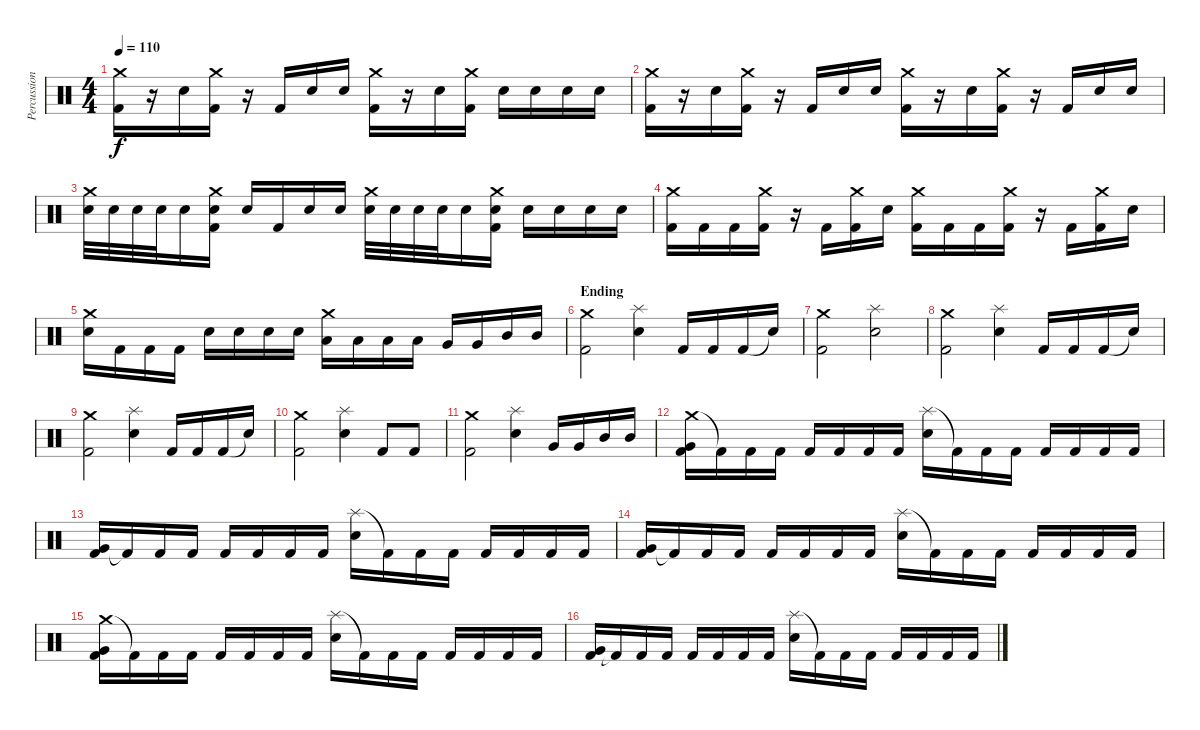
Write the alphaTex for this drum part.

\track ("Percussion" "Percussion") {instrument percussion}
\staff {score}
\articulation defaults
\ts (4 4)
\tempo 110
\clef neutral
\ks c
("Crash medium (hit)" "Kick (hit) 2").16{dy f} r.16 "Snare (hit) 2".16 ("Crash medium (hit)" "Kick (hit) 2").16 r.16 "Kick (hit) 2".16 "Snare (hit) 2".16 "Electric Snare (hit)".16 ("Crash medium (hit)" "Kick (hit) 2").16 r.16 "Snare (hit) 2".16 ("Crash medium (hit)" "Kick (hit) 2").16 "Snare (hit) 2".16 "Snare (hit) 2".16 "Snare (hit) 2".16 "Electric Snare (hit)".16 |
("Crash medium (hit)" "Kick (hit) 2").16 r.16 "Snare (hit) 2".16 ("Crash medium (hit)" "Kick (hit) 2").16 r.16 "Kick (hit) 2".16 "Snare (hit) 2".16 "Electric Snare (hit)".16 ("Crash medium (hit)" "Kick (hit) 2").16 r.16 "Snare (hit) 2".16 ("Crash medium (hit)" "Kick (hit) 2").16 r.16 "Kick (hit) 2".16 "Snare (hit) 2".16 "Electric Snare (hit)".16 |
("Crash medium (hit)" "Electric Snare (hit)").32 "Electric Snare (hit)".32 "Snare (hit) 2".32 "Electric Snare (hit)".32 "Snare (hit) 2".16 ("Crash medium (hit)" "Kick (hit) 2" "Snare (hit) 2").16 "Snare (hit) 2".16 "Kick (hit) 2".16 "Snare (hit) 2".16 "Electric Snare (hit)".16 ("Crash medium (hit)" "Electric Snare (hit)").32 "Electric Snare (hit)".32 "Snare (hit) 2".32 "Electric Snare (hit)".32 "Snare (hit) 2".16 ("Crash medium (hit)" "Kick (hit) 2" "Snare (hit) 2").16 "Snare (hit) 2".16 "Electric Snare (hit)".16 "Snare (hit) 2".16 "Electric Snare (hit)".16 |
("Crash medium (hit)" "Kick (hit) 2").16 "Kick (hit) 2".16 "Kick (hit) 2".16 ("Crash medium (hit)" "Kick (hit) 2").16 r.16 "Kick (hit) 2".16 ("Crash medium (hit)" "Kick (hit) 2").16 "Electric Snare (hit)".16 ("Crash medium (hit)" "Kick (hit) 2").16 "Kick (hit) 2".16 "Kick (hit) 2".16 ("Crash medium (hit)" "Kick (hit) 2").16 r.16 "Kick (hit) 2".16 ("Crash medium (hit)" "Kick (hit) 2").16 "Electric Snare (hit)".16 |
("Crash medium (hit)" "Snare (hit) 2").16 "Kick (hit) 2".16 "Kick (hit) 2".16 "Kick (hit) 2".16 "Electric Snare (hit)".16 "Electric Snare (hit)".16 "Electric Snare (hit)".16 "Electric Snare (hit)".16 ("Crash medium (hit)" "Low Tom (hit)").16 "Low Tom (hit)".16 "Low Tom (hit)".16 "Low Tom (hit)".16 "Very Low Tom (hit)".16 "Very Low Tom (hit)".16 "Mid Tom (hit)".16 "Mid Tom (hit)".16 |
\section ("" "Ending")
("Crash medium (hit)" "Kick (hit) 2").2 ("Splash (hit)" "Electric Snare (hit)").4 "Kick (hit) 2".16 "Kick (hit) 2".16 "Kick (hit) 2".16 "Electric Snare (hit)"{t}.16 |
("Crash medium (hit)" "Kick (hit) 2").2 ("Splash (hit)" "Electric Snare (hit)").2 |
("Crash medium (hit)" "Kick (hit) 2").2 ("Splash (hit)" "Electric Snare (hit)").4 "Kick (hit) 2".16 "Kick (hit) 2".16 "Kick (hit) 2".16 "Electric Snare (hit)"{t}.16 |
("Crash medium (hit)" "Kick (hit) 2").2 ("Splash (hit)" "Electric Snare (hit)").4 "Kick (hit) 2".16 "Kick (hit) 2".16 "Kick (hit) 2".16 "Electric Snare (hit)"{t}.16 |
("Crash medium (hit)" "Kick (hit) 2").2 ("Splash (hit)" "Electric Snare (hit)").4 "Kick (hit) 2".8 "Kick (hit) 2".8 |
("Crash medium (hit)" "Kick (hit) 2").2 ("Splash (hit)" "Electric Snare (hit)").4 "Very Low Tom (hit)".16 "Very Low Tom (hit)".16 "Mid Tom (hit)".16 "Mid Tom (hit)".16 |
("Crash medium (hit)" "Very Low Tom (hit)" "Kick (hit) 2").16 "Kick (hit) 2"{t}.16 "Kick (hit) 2".16 "Kick (hit) 2".16 "Kick (hit) 2".16 "Kick (hit) 2".16 "Kick (hit) 2".16 "Kick (hit) 2".16 ("Splash (hit)" "Electric Snare (hit)").16 "Kick (hit) 2"{t}.16 "Kick (hit) 2".16 "Kick (hit) 2".16 "Kick (hit) 2".16 "Kick (hit) 2".16 "Kick (hit) 2".16 "Kick (hit) 2".16 |
("Very Low Tom (hit)" "Kick (hit) 2").16 "Kick (hit) 2"{t}.16 "Kick (hit) 2".16 "Kick (hit) 2".16 "Kick (hit) 2".16 "Kick (hit) 2".16 "Kick (hit) 2".16 "Kick (hit) 2".16 ("Splash (hit)" "Electric Snare (hit)").16 "Kick (hit) 2"{t}.16 "Kick (hit) 2".16 "Kick (hit) 2".16 "Kick (hit) 2".16 "Kick (hit) 2".16 "Kick (hit) 2".16 "Kick (hit) 2".16 |
("Very Low Tom (hit)" "Kick (hit) 2").16 "Kick (hit) 2"{t}.16 "Kick (hit) 2".16 "Kick (hit) 2".16 "Kick (hit) 2".16 "Kick (hit) 2".16 "Kick (hit) 2".16 "Kick (hit) 2".16 ("Splash (hit)" "Electric Snare (hit)").16 "Kick (hit) 2"{t}.16 "Kick (hit) 2".16 "Kick (hit) 2".16 "Kick (hit) 2".16 "Kick (hit) 2".16 "Kick (hit) 2".16 "Kick (hit) 2".16 |
("Crash medium (hit)" "Very Low Tom (hit)" "Kick (hit) 2").16 "Kick (hit) 2"{t}.16 "Kick (hit) 2".16 "Kick (hit) 2".16 "Kick (hit) 2".16 "Kick (hit) 2".16 "Kick (hit) 2".16 "Kick (hit) 2".16 ("Splash (hit)" "Electric Snare (hit)").16 "Kick (hit) 2"{t}.16 "Kick (hit) 2".16 "Kick (hit) 2".16 "Kick (hit) 2".16 "Kick (hit) 2".16 "Kick (hit) 2".16 "Kick (hit) 2".16 |
("Very Low Tom (hit)" "Kick (hit) 2").16 "Kick (hit) 2"{t}.16 "Kick (hit) 2".16 "Kick (hit) 2".16 "Kick (hit) 2".16 "Kick (hit) 2".16 "Kick (hit) 2".16 "Kick (hit) 2".16 ("Splash (hit)" "Electric Snare (hit)").16 "Kick (hit) 2"{t}.16 "Kick (hit) 2".16 "Kick (hit) 2".16 "Kick (hit) 2".16 "Kick (hit) 2".16 "Kick (hit) 2".16 "Kick (hit) 2".16
